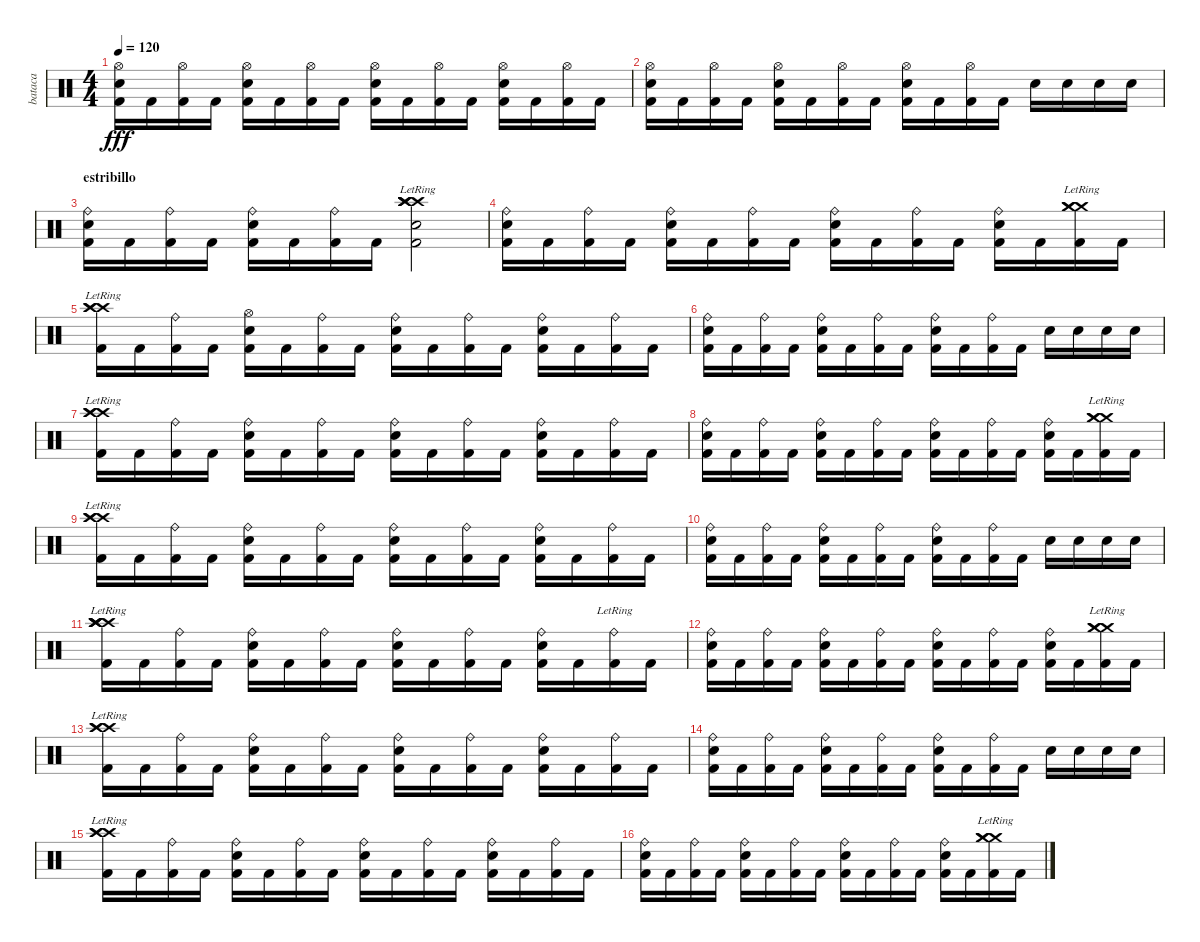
\track ("bataca" "bataca") {instrument percussion}
\staff {score}
\articulation defaults
\ts (4 4)
\tempo 120
\clef neutral
\ks c
("Kick (hit) 2" "Hi-Hat (open)" "Electric Snare (hit)").16{dy fff} "Kick (hit) 2".16 ("Kick (hit) 2" "Hi-Hat (open)").16 "Kick (hit) 2".16 ("Kick (hit) 2" "Hi-Hat (open)" "Electric Snare (hit)").16 "Kick (hit) 2".16 ("Kick (hit) 2" "Hi-Hat (open)").16 "Kick (hit) 2".16 ("Kick (hit) 2" "Hi-Hat (open)" "Electric Snare (hit)").16 "Kick (hit) 2".16 ("Kick (hit) 2" "Hi-Hat (open)").16 "Kick (hit) 2".16 ("Kick (hit) 2" "Hi-Hat (open)" "Electric Snare (hit)").16 "Kick (hit) 2".16 ("Kick (hit) 2" "Hi-Hat (open)").16 "Kick (hit) 2".16 |
("Kick (hit) 2" "Hi-Hat (open)" "Electric Snare (hit)").16 "Kick (hit) 2".16 ("Kick (hit) 2" "Hi-Hat (open)").16 "Kick (hit) 2".16 ("Kick (hit) 2" "Hi-Hat (open)" "Electric Snare (hit)").16 "Kick (hit) 2".16 ("Kick (hit) 2" "Hi-Hat (open)").16 "Kick (hit) 2".16 ("Kick (hit) 2" "Hi-Hat (open)" "Electric Snare (hit)").16 "Kick (hit) 2".16 ("Kick (hit) 2" "Hi-Hat (open)").16 "Kick (hit) 2".16 "Electric Snare (hit)".16 "Electric Snare (hit)".16 "Electric Snare (hit)".16 "Electric Snare (hit)".16 |
\section ("" "estribillo")
("Kick (hit) 2" "Ride (bell)" "Electric Snare (hit)").16 "Kick (hit) 2".16 ("Kick (hit) 2" "Ride (bell)").16 "Kick (hit) 2".16 ("Kick (hit) 2" "Ride (bell)" "Electric Snare (hit)").16 "Kick (hit) 2".16 ("Kick (hit) 2" "Ride (bell)").16 "Kick (hit) 2".16 ("Kick (hit) 2"{lr} "Electric Snare (hit)"{lr} "Crash high (hit)"{lr} "Crash high (hit)"{lr} "Crash high (hit)"{lr} "Crash high (hit)"{lr}).2 |
("Kick (hit) 2" "Ride (bell)" "Electric Snare (hit)").16 "Kick (hit) 2".16 ("Kick (hit) 2" "Ride (bell)").16 "Kick (hit) 2".16 ("Kick (hit) 2" "Ride (bell)" "Electric Snare (hit)").16 "Kick (hit) 2".16 ("Kick (hit) 2" "Ride (bell)").16 "Kick (hit) 2".16 ("Kick (hit) 2" "Ride (bell)" "Electric Snare (hit)").16 "Kick (hit) 2".16 ("Kick (hit) 2" "Ride (bell)").16 "Kick (hit) 2".16 ("Kick (hit) 2" "Ride (bell)" "Electric Snare (hit)").16 "Kick (hit) 2".16 ("Kick (hit) 2" "Crash medium (hit)"{lr} "Crash medium (hit)"{lr} "Crash medium (hit)"{lr}).16 "Kick (hit) 2".16 |
("Kick (hit) 2" "Crash high (hit)"{lr} "Crash high (hit)"{lr} "Crash high (hit)"{lr}).16 "Kick (hit) 2".16 ("Kick (hit) 2" "Ride (bell)").16 "Kick (hit) 2".16 ("Kick (hit) 2" "Hi-Hat (open)" "Electric Snare (hit)").16 "Kick (hit) 2".16 ("Kick (hit) 2" "Ride (bell)").16 "Kick (hit) 2".16 ("Kick (hit) 2" "Ride (bell)" "Electric Snare (hit)").16 "Kick (hit) 2".16 ("Kick (hit) 2" "Ride (bell)").16 "Kick (hit) 2".16 ("Kick (hit) 2" "Ride (bell)" "Electric Snare (hit)").16 "Kick (hit) 2".16 ("Kick (hit) 2" "Ride (bell)").16 "Kick (hit) 2".16 |
("Kick (hit) 2" "Ride (bell)" "Electric Snare (hit)").16 "Kick (hit) 2".16 ("Kick (hit) 2" "Ride (bell)").16 "Kick (hit) 2".16 ("Kick (hit) 2" "Ride (bell)" "Electric Snare (hit)").16 "Kick (hit) 2".16 ("Kick (hit) 2" "Ride (bell)").16 "Kick (hit) 2".16 ("Kick (hit) 2" "Ride (bell)" "Electric Snare (hit)").16 "Kick (hit) 2".16 ("Kick (hit) 2" "Ride (bell)").16 "Kick (hit) 2".16 "Electric Snare (hit)".16 "Electric Snare (hit)".16 "Electric Snare (hit)".16 "Electric Snare (hit)".16 |
("Kick (hit) 2" "Crash high (hit)"{lr} "Crash high (hit)"{lr} "Crash high (hit)"{lr}).16 "Kick (hit) 2".16 ("Kick (hit) 2" "Ride (bell)").16 "Kick (hit) 2".16 ("Kick (hit) 2" "Ride (bell)" "Electric Snare (hit)").16 "Kick (hit) 2".16 ("Kick (hit) 2" "Ride (bell)").16 "Kick (hit) 2".16 ("Kick (hit) 2" "Ride (bell)" "Electric Snare (hit)").16 "Kick (hit) 2".16 ("Kick (hit) 2" "Ride (bell)").16 "Kick (hit) 2".16 ("Kick (hit) 2" "Ride (bell)" "Electric Snare (hit)").16 "Kick (hit) 2".16 ("Kick (hit) 2" "Ride (bell)").16 "Kick (hit) 2".16 |
("Kick (hit) 2" "Ride (bell)" "Electric Snare (hit)").16 "Kick (hit) 2".16 ("Kick (hit) 2" "Ride (bell)").16 "Kick (hit) 2".16 ("Kick (hit) 2" "Ride (bell)" "Electric Snare (hit)").16 "Kick (hit) 2".16 ("Kick (hit) 2" "Ride (bell)").16 "Kick (hit) 2".16 ("Kick (hit) 2" "Ride (bell)" "Electric Snare (hit)").16 "Kick (hit) 2".16 ("Kick (hit) 2" "Ride (bell)").16 "Kick (hit) 2".16 ("Kick (hit) 2" "Ride (bell)" "Electric Snare (hit)").16 "Kick (hit) 2".16 ("Kick (hit) 2" "Crash medium (hit)"{lr} "Crash medium (hit)"{lr} "Crash medium (hit)"{lr}).16 "Kick (hit) 2".16 |
("Kick (hit) 2" "Crash high (hit)"{lr} "Crash high (hit)"{lr} "Crash high (hit)"{lr}).16 "Kick (hit) 2".16 ("Kick (hit) 2" "Ride (bell)").16 "Kick (hit) 2".16 ("Kick (hit) 2" "Ride (bell)" "Electric Snare (hit)").16 "Kick (hit) 2".16 ("Kick (hit) 2" "Ride (bell)").16 "Kick (hit) 2".16 ("Kick (hit) 2" "Ride (bell)" "Electric Snare (hit)").16 "Kick (hit) 2".16 ("Kick (hit) 2" "Ride (bell)").16 "Kick (hit) 2".16 ("Kick (hit) 2" "Ride (bell)" "Electric Snare (hit)").16 "Kick (hit) 2".16 ("Kick (hit) 2" "Ride (bell)").16 "Kick (hit) 2".16 |
("Kick (hit) 2" "Ride (bell)" "Electric Snare (hit)").16 "Kick (hit) 2".16 ("Kick (hit) 2" "Ride (bell)").16 "Kick (hit) 2".16 ("Kick (hit) 2" "Ride (bell)" "Electric Snare (hit)").16 "Kick (hit) 2".16 ("Kick (hit) 2" "Ride (bell)").16 "Kick (hit) 2".16 ("Kick (hit) 2" "Ride (bell)" "Electric Snare (hit)").16 "Kick (hit) 2".16 ("Kick (hit) 2" "Ride (bell)").16 "Kick (hit) 2".16 "Electric Snare (hit)".16 "Electric Snare (hit)".16 "Electric Snare (hit)".16 "Electric Snare (hit)".16 |
("Kick (hit) 2" "Crash high (hit)"{lr} "Crash high (hit)"{lr} "Crash high (hit)"{lr} "Crash high (hit)"{lr} "Crash high (hit)"{lr}).16 "Kick (hit) 2".16 ("Kick (hit) 2" "Ride (bell)").16 "Kick (hit) 2".16 ("Kick (hit) 2" "Ride (bell)" "Electric Snare (hit)").16 "Kick (hit) 2".16 ("Kick (hit) 2" "Ride (bell)").16 "Kick (hit) 2".16 ("Kick (hit) 2" "Ride (bell)" "Electric Snare (hit)").16 "Kick (hit) 2".16 ("Kick (hit) 2" "Ride (bell)").16 "Kick (hit) 2".16 ("Kick (hit) 2" "Ride (bell)" "Electric Snare (hit)").16 "Kick (hit) 2".16 ("Kick (hit) 2" "Ride (bell)"{lr}).16 "Kick (hit) 2".16 |
("Kick (hit) 2" "Ride (bell)" "Electric Snare (hit)").16 "Kick (hit) 2".16 ("Kick (hit) 2" "Ride (bell)").16 "Kick (hit) 2".16 ("Kick (hit) 2" "Ride (bell)" "Electric Snare (hit)").16 "Kick (hit) 2".16 ("Kick (hit) 2" "Ride (bell)").16 "Kick (hit) 2".16 ("Kick (hit) 2" "Ride (bell)" "Electric Snare (hit)").16 "Kick (hit) 2".16 ("Kick (hit) 2" "Ride (bell)").16 "Kick (hit) 2".16 ("Kick (hit) 2" "Ride (bell)" "Electric Snare (hit)").16 "Kick (hit) 2".16 ("Kick (hit) 2" "Crash medium (hit)"{lr} "Crash medium (hit)"{lr} "Crash medium (hit)"{lr}).16 "Kick (hit) 2".16 |
("Kick (hit) 2" "Crash high (hit)"{lr} "Crash high (hit)"{lr} "Crash high (hit)"{lr}).16 "Kick (hit) 2".16 ("Kick (hit) 2" "Ride (bell)").16 "Kick (hit) 2".16 ("Kick (hit) 2" "Ride (bell)" "Electric Snare (hit)").16 "Kick (hit) 2".16 ("Kick (hit) 2" "Ride (bell)").16 "Kick (hit) 2".16 ("Kick (hit) 2" "Ride (bell)" "Electric Snare (hit)").16 "Kick (hit) 2".16 ("Kick (hit) 2" "Ride (bell)").16 "Kick (hit) 2".16 ("Kick (hit) 2" "Ride (bell)" "Electric Snare (hit)").16 "Kick (hit) 2".16 ("Kick (hit) 2" "Ride (bell)").16 "Kick (hit) 2".16 |
("Kick (hit) 2" "Ride (bell)" "Electric Snare (hit)").16 "Kick (hit) 2".16 ("Kick (hit) 2" "Ride (bell)").16 "Kick (hit) 2".16 ("Kick (hit) 2" "Ride (bell)" "Electric Snare (hit)").16 "Kick (hit) 2".16 ("Kick (hit) 2" "Ride (bell)").16 "Kick (hit) 2".16 ("Kick (hit) 2" "Ride (bell)" "Electric Snare (hit)").16 "Kick (hit) 2".16 ("Kick (hit) 2" "Ride (bell)").16 "Kick (hit) 2".16 "Electric Snare (hit)".16 "Electric Snare (hit)".16 "Electric Snare (hit)".16 "Electric Snare (hit)".16 |
("Kick (hit) 2" "Crash high (hit)"{lr} "Crash high (hit)"{lr} "Crash high (hit)"{lr}).16 "Kick (hit) 2".16 ("Kick (hit) 2" "Ride (bell)").16 "Kick (hit) 2".16 ("Kick (hit) 2" "Ride (bell)" "Electric Snare (hit)").16 "Kick (hit) 2".16 ("Kick (hit) 2" "Ride (bell)").16 "Kick (hit) 2".16 ("Kick (hit) 2" "Ride (bell)" "Electric Snare (hit)").16 "Kick (hit) 2".16 ("Kick (hit) 2" "Ride (bell)").16 "Kick (hit) 2".16 ("Kick (hit) 2" "Ride (bell)" "Electric Snare (hit)").16 "Kick (hit) 2".16 ("Kick (hit) 2" "Ride (bell)").16 "Kick (hit) 2".16 |
("Kick (hit) 2" "Ride (bell)" "Electric Snare (hit)").16 "Kick (hit) 2".16 ("Kick (hit) 2" "Ride (bell)").16 "Kick (hit) 2".16 ("Kick (hit) 2" "Ride (bell)" "Electric Snare (hit)").16 "Kick (hit) 2".16 ("Kick (hit) 2" "Ride (bell)").16 "Kick (hit) 2".16 ("Kick (hit) 2" "Ride (bell)" "Electric Snare (hit)").16 "Kick (hit) 2".16 ("Kick (hit) 2" "Ride (bell)").16 "Kick (hit) 2".16 ("Kick (hit) 2" "Ride (bell)" "Electric Snare (hit)").16 "Kick (hit) 2".16 ("Kick (hit) 2" "Crash medium (hit)"{lr} "Crash medium (hit)"{lr} "Crash medium (hit)"{lr}).16 "Kick (hit) 2".16
